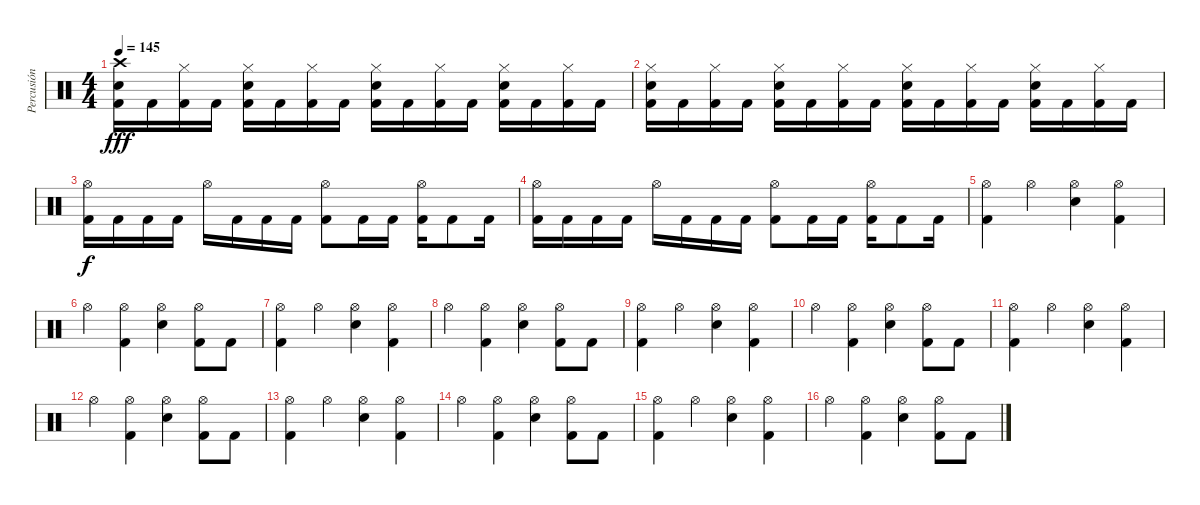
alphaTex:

\track ("Percusión" "Percusión") {instrument percussion}
\staff {score}
\articulation defaults
\ts (4 4)
\tempo 145
\clef neutral
\ks c
("Kick (hit) 2" "Snare (hit) 2" "Crash high (hit)").16{dy fff} "Kick (hit) 2".16 ("Kick (hit) 2" "Hi-Hat (closed)").16 "Kick (hit) 2".16 ("Kick (hit) 2" "Snare (hit) 2" "Hi-Hat (closed)").16 "Kick (hit) 2".16 ("Kick (hit) 2" "Hi-Hat (closed)").16 "Kick (hit) 2".16 ("Kick (hit) 2" "Snare (hit) 2" "Hi-Hat (closed)").16 "Kick (hit) 2".16 ("Kick (hit) 2" "Hi-Hat (closed)").16 "Kick (hit) 2".16 ("Kick (hit) 2" "Snare (hit) 2" "Hi-Hat (closed)").16 "Kick (hit) 2".16 ("Kick (hit) 2" "Hi-Hat (closed)").16 "Kick (hit) 2".16 |
("Kick (hit) 2" "Snare (hit) 2" "Hi-Hat (closed)").16 "Kick (hit) 2".16 ("Kick (hit) 2" "Hi-Hat (closed)").16 "Kick (hit) 2".16 ("Kick (hit) 2" "Snare (hit) 2" "Hi-Hat (closed)").16 "Kick (hit) 2".16 ("Kick (hit) 2" "Hi-Hat (closed)").16 "Kick (hit) 2".16 ("Kick (hit) 2" "Snare (hit) 2" "Hi-Hat (closed)").16 "Kick (hit) 2".16 ("Kick (hit) 2" "Hi-Hat (closed)").16 "Kick (hit) 2".16 ("Kick (hit) 2" "Snare (hit) 2" "Hi-Hat (closed)").16 "Kick (hit) 2".16 ("Kick (hit) 2" "Hi-Hat (closed)").16 "Kick (hit) 2".16 |
("Kick (hit) 2" "Hi-Hat (open)").16{dy f} "Kick (hit) 2".16 "Kick (hit) 2".16 "Kick (hit) 2".16 "Hi-Hat (open)".16 "Kick (hit) 2".16 "Kick (hit) 2".16 "Kick (hit) 2".16 ("Kick (hit) 2" "Hi-Hat (open)").8 "Kick (hit) 2".16 "Kick (hit) 2".16 ("Kick (hit) 2" "Hi-Hat (open)").16 "Kick (hit) 2".8 "Kick (hit) 2".16 |
("Kick (hit) 2" "Hi-Hat (open)").16 "Kick (hit) 2".16 "Kick (hit) 2".16 "Kick (hit) 2".16 "Hi-Hat (open)".16 "Kick (hit) 2".16 "Kick (hit) 2".16 "Kick (hit) 2".16 ("Kick (hit) 2" "Hi-Hat (open)").8 "Kick (hit) 2".16 "Kick (hit) 2".16 ("Kick (hit) 2" "Hi-Hat (open)").16 "Kick (hit) 2".8 "Kick (hit) 2".16 |
("Kick (hit) 2" "Hi-Hat (open)").4 "Hi-Hat (open)".4 ("Snare (hit) 2" "Hi-Hat (open)").4 ("Kick (hit) 2" "Hi-Hat (open)").4 |
"Hi-Hat (open)".4 ("Kick (hit) 2" "Hi-Hat (open)").4 ("Snare (hit) 2" "Hi-Hat (open)").4 ("Kick (hit) 2" "Hi-Hat (open)").8 "Kick (hit) 2".8 |
("Kick (hit) 2" "Hi-Hat (open)").4 "Hi-Hat (open)".4 ("Snare (hit) 2" "Hi-Hat (open)").4 ("Kick (hit) 2" "Hi-Hat (open)").4 |
"Hi-Hat (open)".4 ("Kick (hit) 2" "Hi-Hat (open)").4 ("Snare (hit) 2" "Hi-Hat (open)").4 ("Kick (hit) 2" "Hi-Hat (open)").8 "Kick (hit) 2".8 |
("Kick (hit) 2" "Hi-Hat (open)").4 "Hi-Hat (open)".4 ("Snare (hit) 2" "Hi-Hat (open)").4 ("Kick (hit) 2" "Hi-Hat (open)").4 |
"Hi-Hat (open)".4 ("Kick (hit) 2" "Hi-Hat (open)").4 ("Snare (hit) 2" "Hi-Hat (open)").4 ("Kick (hit) 2" "Hi-Hat (open)").8 "Kick (hit) 2".8 |
("Kick (hit) 2" "Hi-Hat (open)").4 "Hi-Hat (open)".4 ("Snare (hit) 2" "Hi-Hat (open)").4 ("Kick (hit) 2" "Hi-Hat (open)").4 |
"Hi-Hat (open)".4 ("Kick (hit) 2" "Hi-Hat (open)").4 ("Snare (hit) 2" "Hi-Hat (open)").4 ("Kick (hit) 2" "Hi-Hat (open)").8 "Kick (hit) 2".8 |
("Kick (hit) 2" "Hi-Hat (open)").4 "Hi-Hat (open)".4 ("Snare (hit) 2" "Hi-Hat (open)").4 ("Kick (hit) 2" "Hi-Hat (open)").4 |
"Hi-Hat (open)".4 ("Kick (hit) 2" "Hi-Hat (open)").4 ("Snare (hit) 2" "Hi-Hat (open)").4 ("Kick (hit) 2" "Hi-Hat (open)").8 "Kick (hit) 2".8 |
("Kick (hit) 2" "Hi-Hat (open)").4 "Hi-Hat (open)".4 ("Snare (hit) 2" "Hi-Hat (open)").4 ("Kick (hit) 2" "Hi-Hat (open)").4 |
"Hi-Hat (open)".4 ("Kick (hit) 2" "Hi-Hat (open)").4 ("Snare (hit) 2" "Hi-Hat (open)").4 ("Kick (hit) 2" "Hi-Hat (open)").8 "Kick (hit) 2".8
